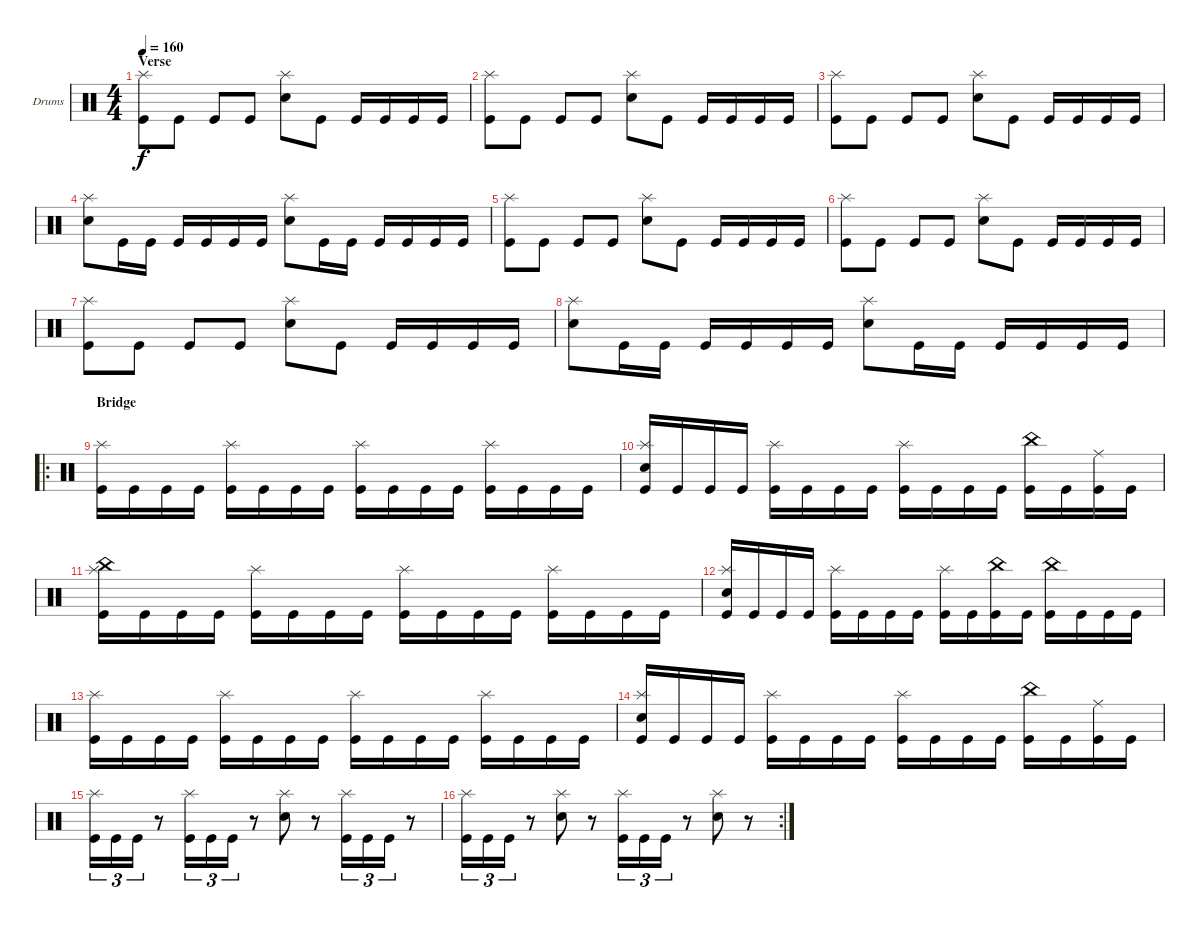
\defaultSystemsLayout 4
\bracketExtendMode groupsimilarinstruments
\firstSystemTrackNameOrientation horizontal
\otherSystemsTrackNameOrientation horizontal
\track ("Drumkit" "Drums") {instrument percussion}
\staff {score}
\articulation defaults
\ts (4 4)
\section ("" "Verse")
\tempo 160
\clef neutral
\ks c
("Kick (hit)" "Splash (hit)").8{dy f} "Kick (hit)".8 "Kick (hit)".8 "Kick (hit)".8 ("Snare (hit) 2" "Splash (hit)").8 "Kick (hit)".8 "Kick (hit)".16 "Kick (hit)".16 "Kick (hit)".16 "Kick (hit)".16 |
("Kick (hit)" "Splash (hit)").8 "Kick (hit)".8 "Kick (hit)".8 "Kick (hit)".8 ("Snare (hit) 2" "Splash (hit)").8 "Kick (hit)".8 "Kick (hit)".16 "Kick (hit)".16 "Kick (hit)".16 "Kick (hit)".16 |
("Kick (hit)" "Splash (hit)").8 "Kick (hit)".8 "Kick (hit)".8 "Kick (hit)".8 ("Snare (hit) 2" "Splash (hit)").8 "Kick (hit)".8 "Kick (hit)".16 "Kick (hit)".16 "Kick (hit)".16 "Kick (hit)".16 |
("Snare (hit) 2" "Splash (hit)").8 "Kick (hit)".16 "Kick (hit)".16 "Kick (hit)".16 "Kick (hit)".16 "Kick (hit)".16 "Kick (hit)".16 ("Snare (hit) 2" "Splash (hit)").8 "Kick (hit)".16 "Kick (hit)".16 "Kick (hit)".16 "Kick (hit)".16 "Kick (hit)".16 "Kick (hit)".16 |
("Kick (hit)" "Splash (hit)").8 "Kick (hit)".8 "Kick (hit)".8 "Kick (hit)".8 ("Snare (hit) 2" "Splash (hit)").8 "Kick (hit)".8 "Kick (hit)".16 "Kick (hit)".16 "Kick (hit)".16 "Kick (hit)".16 |
("Kick (hit)" "Splash (hit)").8 "Kick (hit)".8 "Kick (hit)".8 "Kick (hit)".8 ("Snare (hit) 2" "Splash (hit)").8 "Kick (hit)".8 "Kick (hit)".16 "Kick (hit)".16 "Kick (hit)".16 "Kick (hit)".16 |
("Kick (hit)" "Splash (hit)").8 "Kick (hit)".8 "Kick (hit)".8 "Kick (hit)".8 ("Snare (hit) 2" "Splash (hit)").8 "Kick (hit)".8 "Kick (hit)".16 "Kick (hit)".16 "Kick (hit)".16 "Kick (hit)".16 |
("Snare (hit) 2" "Splash (hit)").8 "Kick (hit)".16 "Kick (hit)".16 "Kick (hit)".16 "Kick (hit)".16 "Kick (hit)".16 "Kick (hit)".16 ("Snare (hit) 2" "Splash (hit)").8 "Kick (hit)".16 "Kick (hit)".16 "Kick (hit)".16 "Kick (hit)".16 "Kick (hit)".16 "Kick (hit)".16 |
\ro
\section ("" "Bridge")
("Kick (hit)" "Splash (hit)").16 "Kick (hit)".16 "Kick (hit)".16 "Kick (hit)".16 ("Kick (hit)" "Splash (hit)").16 "Kick (hit)".16 "Kick (hit)".16 "Kick (hit)".16 ("Kick (hit)" "Splash (hit)").16 "Kick (hit)".16 "Kick (hit)".16 "Kick (hit)".16 ("Kick (hit)" "Splash (hit)").16 "Kick (hit)".16 "Kick (hit)".16 "Kick (hit)".16 |
("Kick (hit)" "Splash (hit)" "Snare (hit) 2").16 "Kick (hit)".16 "Kick (hit)".16 "Kick (hit)".16 ("Kick (hit)" "Splash (hit)").16 "Kick (hit)".16 "Kick (hit)".16 "Kick (hit)".16 ("Kick (hit)" "Splash (hit)").16 "Kick (hit)".16 "Kick (hit)".16 "Kick (hit)".16 ("Kick (hit)" "China (hit)").16 "Kick (hit)".16 ("Kick (hit)" "Ride (middle)").16 "Kick (hit)".16 |
("Kick (hit)" "Splash (hit)" "China (hit)").16 "Kick (hit)".16 "Kick (hit)".16 "Kick (hit)".16 ("Kick (hit)" "Splash (hit)").16 "Kick (hit)".16 "Kick (hit)".16 "Kick (hit)".16 ("Kick (hit)" "Splash (hit)").16 "Kick (hit)".16 "Kick (hit)".16 "Kick (hit)".16 ("Kick (hit)" "Splash (hit)").16 "Kick (hit)".16 "Kick (hit)".16 "Kick (hit)".16 |
("Kick (hit)" "Splash (hit)" "Snare (hit) 2").16 "Kick (hit)".16 "Kick (hit)".16 "Kick (hit)".16 ("Kick (hit)" "Splash (hit)").16 "Kick (hit)".16 "Kick (hit)".16 "Kick (hit)".16 ("Kick (hit)" "Splash (hit)").16 "Kick (hit)".16 ("Kick (hit)" "China (hit)").16 "Kick (hit)".16 ("Kick (hit)" "China (hit)").16 "Kick (hit)".16 "Kick (hit)".16 "Kick (hit)".16 |
("Kick (hit)" "Splash (hit)").16 "Kick (hit)".16 "Kick (hit)".16 "Kick (hit)".16 ("Kick (hit)" "Splash (hit)").16 "Kick (hit)".16 "Kick (hit)".16 "Kick (hit)".16 ("Kick (hit)" "Splash (hit)").16 "Kick (hit)".16 "Kick (hit)".16 "Kick (hit)".16 ("Kick (hit)" "Splash (hit)").16 "Kick (hit)".16 "Kick (hit)".16 "Kick (hit)".16 |
("Kick (hit)" "Splash (hit)" "Snare (hit) 2").16 "Kick (hit)".16 "Kick (hit)".16 "Kick (hit)".16 ("Kick (hit)" "Splash (hit)").16 "Kick (hit)".16 "Kick (hit)".16 "Kick (hit)".16 ("Kick (hit)" "Splash (hit)").16 "Kick (hit)".16 "Kick (hit)".16 "Kick (hit)".16 ("Kick (hit)" "China (hit)").16 "Kick (hit)".16 ("Kick (hit)" "Ride (middle)").16 "Kick (hit)".16 |
("Kick (hit)" "Splash (hit)").16{tu (3 2)} "Kick (hit)".16{tu (3 2)} "Kick (hit)".16{tu (3 2)} r.8 ("Kick (hit)" "Splash (hit)").16{tu (3 2)} "Kick (hit)".16{tu (3 2)} "Kick (hit)".16{tu (3 2)} r.8 ("Splash (hit)" "Snare (hit) 2").8 r.8 ("Kick (hit)" "Splash (hit)").16{tu (3 2)} "Kick (hit)".16{tu (3 2)} "Kick (hit)".16{tu (3 2)} r.8 |
\rc 2
("Kick (hit)" "Splash (hit)").16{tu (3 2)} "Kick (hit)".16{tu (3 2)} "Kick (hit)".16{tu (3 2)} r.8 ("Splash (hit)" "Snare (hit) 2").8 r.8 ("Kick (hit)" "Splash (hit)").16{tu (3 2)} "Kick (hit)".16{tu (3 2)} "Kick (hit)".16{tu (3 2)} r.8 ("Splash (hit)" "Snare (hit) 2").8 r.8
